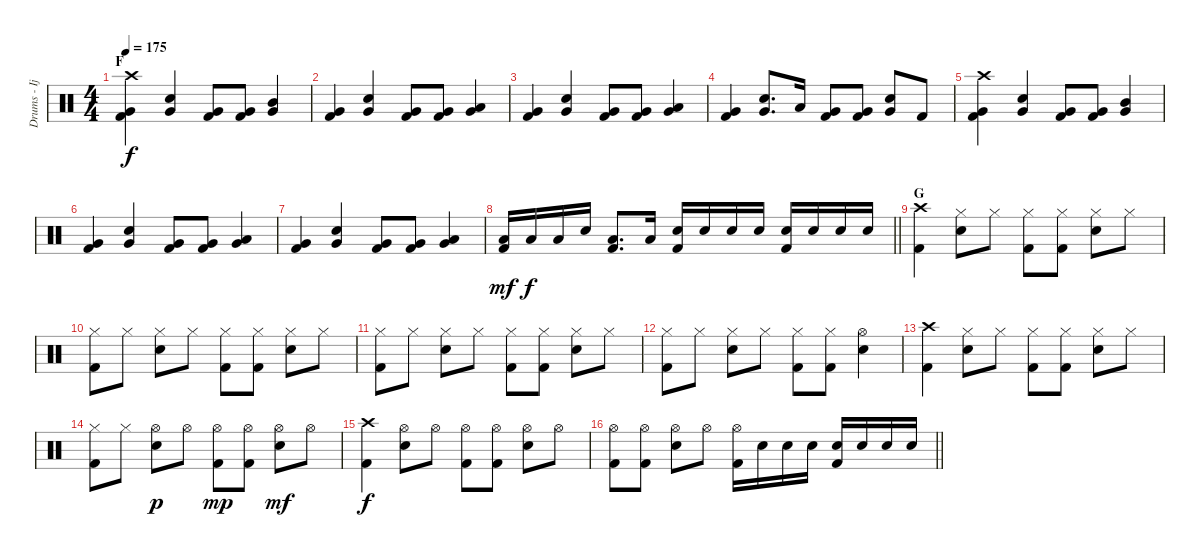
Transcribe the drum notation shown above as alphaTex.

\track ("Drums - Ijichi" "Drums - Ij") {instrument percussion}
\staff {score}
\articulation defaults
\ts (4 4)
\section ("" "F")
\tempo 175
\clef neutral
\ks c
("Crash high (hit)" "Very Low Tom (hit)" "Kick (hit) 2").4{dy f} ("Snare (hit) 2" "Very Low Tom (hit)").4 ("Very Low Tom (hit)" "Kick (hit) 2").8 ("Very Low Tom (hit)" "Kick (hit) 2").8 ("Mid Tom (hit)" "Very Low Tom (hit)").4 |
("Very Low Tom (hit)" "Kick (hit) 2").4 ("Snare (hit) 2" "Very Low Tom (hit)").4 ("Very Low Tom (hit)" "Kick (hit) 2").8 ("Very Low Tom (hit)" "Kick (hit) 2").8 ("Low Tom (hit)" "Very Low Tom (hit)").4 |
("Very Low Tom (hit)" "Kick (hit) 2").4 ("Snare (hit) 2" "Very Low Tom (hit)").4 ("Very Low Tom (hit)" "Kick (hit) 2").8 ("Very Low Tom (hit)" "Kick (hit) 2").8 ("Low Tom (hit)" "Very Low Tom (hit)").4 |
("Very Low Tom (hit)" "Kick (hit) 2").4 ("Snare (hit) 2" "Very Low Tom (hit)").8{d} "Low Tom (hit)".16 ("Very Low Tom (hit)" "Kick (hit) 2").8 ("Very Low Tom (hit)" "Kick (hit) 2").8 ("Snare (hit) 2" "Very Low Tom (hit)").8 "Kick (hit) 2".8 |
("Crash high (hit)" "Very Low Tom (hit)" "Kick (hit) 2").4 ("Snare (hit) 2" "Very Low Tom (hit)").4 ("Very Low Tom (hit)" "Kick (hit) 2").8 ("Very Low Tom (hit)" "Kick (hit) 2").8 ("Mid Tom (hit)" "Very Low Tom (hit)").4 |
("Very Low Tom (hit)" "Kick (hit) 2").4 ("Snare (hit) 2" "Very Low Tom (hit)").4 ("Very Low Tom (hit)" "Kick (hit) 2").8 ("Very Low Tom (hit)" "Kick (hit) 2").8 ("Low Tom (hit)" "Very Low Tom (hit)").4 |
("Very Low Tom (hit)" "Kick (hit) 2").4 ("Snare (hit) 2" "Very Low Tom (hit)").4 ("Very Low Tom (hit)" "Kick (hit) 2").8 ("Very Low Tom (hit)" "Kick (hit) 2").8 ("Low Tom (hit)" "Very Low Tom (hit)").4 |
\barLineRight lightlight
("Low Tom (hit)" "Kick (hit) 2").16{dy mf} "Low Tom (hit)".16{dy f} "Low Tom (hit)".16 "Snare (hit) 2".16 ("Low Tom (hit)" "Kick (hit) 2").8{d} "Low Tom (hit)".16{volume 10} ("Snare (hit) 2" "Kick (hit) 2").16{volume 14} "Snare (hit) 2".16 "Snare (hit) 2".16 "Snare (hit) 2".16 ("Snare (hit) 2" "Kick (hit) 2").16 "Snare (hit) 2".16 "Snare (hit) 2".16 "Snare (hit) 2".16 |
\section ("" "G")
("Crash high (hit)" "Kick (hit) 2").4 ("Hi-Hat (closed)" "Snare (hit) 2").8 "Hi-Hat (closed)".8 ("Hi-Hat (closed)" "Kick (hit) 2").8 ("Hi-Hat (closed)" "Kick (hit) 2").8 ("Hi-Hat (closed)" "Snare (hit) 2").8 "Hi-Hat (closed)".8 |
("Hi-Hat (closed)" "Kick (hit) 2").8 "Hi-Hat (closed)".8 ("Hi-Hat (closed)" "Snare (hit) 2").8 "Hi-Hat (closed)".8 ("Hi-Hat (closed)" "Kick (hit) 2").8 ("Hi-Hat (closed)" "Kick (hit) 2").8 ("Hi-Hat (closed)" "Snare (hit) 2").8 "Hi-Hat (closed)".8 |
("Hi-Hat (closed)" "Kick (hit) 2").8 "Hi-Hat (closed)".8 ("Hi-Hat (closed)" "Snare (hit) 2").8 "Hi-Hat (closed)".8 ("Hi-Hat (closed)" "Kick (hit) 2").8 ("Hi-Hat (closed)" "Kick (hit) 2").8 ("Hi-Hat (closed)" "Snare (hit) 2").8 "Hi-Hat (closed)".8 |
("Hi-Hat (closed)" "Kick (hit) 2").8 "Hi-Hat (closed)".8 ("Hi-Hat (closed)" "Snare (hit) 2").8 "Hi-Hat (closed)".8 ("Hi-Hat (closed)" "Kick (hit) 2").8 ("Hi-Hat (closed)" "Kick (hit) 2").8 ("Hi-Hat (open)" "Snare (hit) 2").4 |
("Crash high (hit)" "Kick (hit) 2").4 ("Hi-Hat (closed)" "Snare (hit) 2").8 "Hi-Hat (closed)".8 ("Hi-Hat (closed)" "Kick (hit) 2").8 ("Hi-Hat (closed)" "Kick (hit) 2").8 ("Hi-Hat (closed)" "Snare (hit) 2").8 "Hi-Hat (closed)".8 |
("Hi-Hat (closed)" "Kick (hit) 2").8 "Hi-Hat (closed)".8 ("Hi-Hat (open)" "Snare (hit) 2").8{dy p} "Hi-Hat (open)".8 ("Hi-Hat (open)" "Kick (hit) 2").8{dy mp} ("Hi-Hat (open)" "Kick (hit) 2").8 ("Hi-Hat (open)" "Snare (hit) 2").8{dy mf} "Hi-Hat (open)".8 |
("Crash high (hit)" "Kick (hit) 2").4{dy f} ("Hi-Hat (open)" "Snare (hit) 2").8 "Hi-Hat (open)".8 ("Hi-Hat (open)" "Kick (hit) 2").8 ("Hi-Hat (open)" "Kick (hit) 2").8 ("Hi-Hat (open)" "Snare (hit) 2").8 "Hi-Hat (open)".8 |
\barLineRight lightlight
("Hi-Hat (open)" "Kick (hit) 2").8 ("Hi-Hat (open)" "Kick (hit) 2").8 ("Hi-Hat (open)" "Snare (hit) 2").8 "Hi-Hat (open)".8 ("Hi-Hat (open)" "Kick (hit) 2").16 "Snare (hit) 2".16 "Snare (hit) 2".16 "Snare (hit) 2".16 ("Snare (hit) 2" "Kick (hit) 2").16 "Snare (hit) 2".16 "Snare (hit) 2".16 "Snare (hit) 2".16
